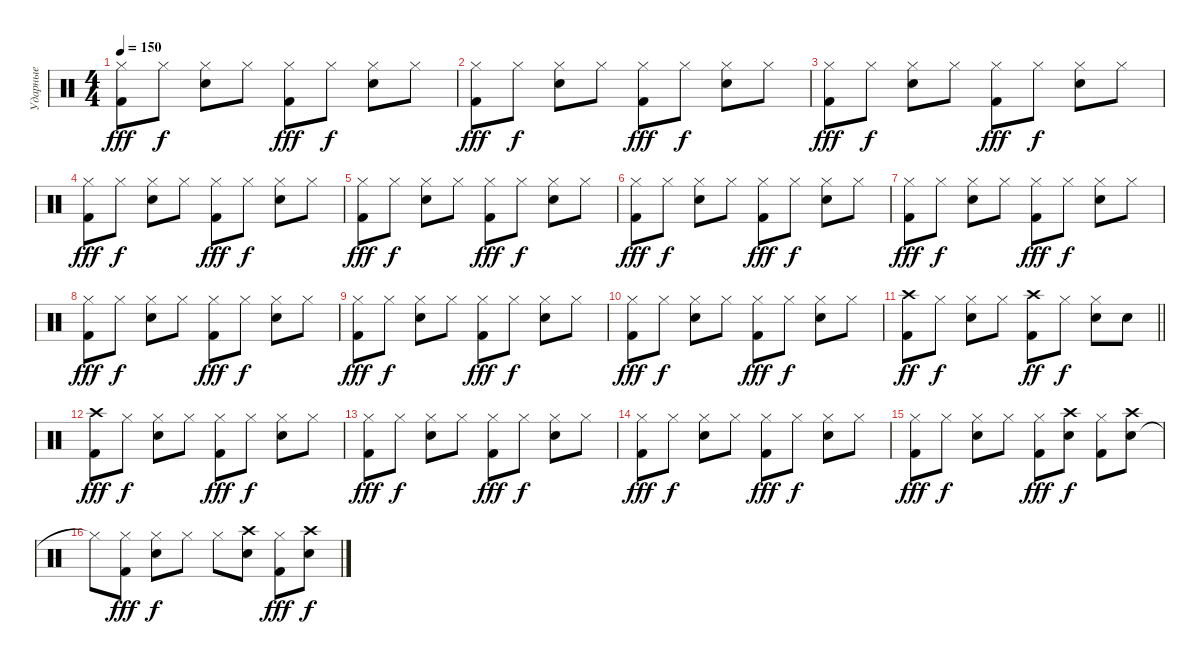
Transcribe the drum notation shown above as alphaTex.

\track ("Ударные" "Ударные") {instrument percussion}
\staff
\articulation defaults
\ts (4 4)
\tempo 150
\clef neutral
\ks c
("Kick (hit) 2" "Hi-Hat (closed)").8{dy fff} "Hi-Hat (closed)".8{dy f} ("Snare (hit) 2" "Hi-Hat (closed)").8 "Hi-Hat (closed)".8 ("Kick (hit) 2" "Hi-Hat (closed)").8{dy fff} "Hi-Hat (closed)".8{dy f} ("Snare (hit) 2" "Hi-Hat (closed)").8 "Hi-Hat (closed)".8 |
("Kick (hit) 2" "Hi-Hat (closed)").8{dy fff} "Hi-Hat (closed)".8{dy f} ("Snare (hit) 2" "Hi-Hat (closed)").8 "Hi-Hat (closed)".8 ("Kick (hit) 2" "Hi-Hat (closed)").8{dy fff} "Hi-Hat (closed)".8{dy f} ("Snare (hit) 2" "Hi-Hat (closed)").8 "Hi-Hat (closed)".8 |
("Kick (hit) 2" "Hi-Hat (closed)").8{dy fff} "Hi-Hat (closed)".8{dy f} ("Snare (hit) 2" "Hi-Hat (closed)").8 "Hi-Hat (closed)".8 ("Kick (hit) 2" "Hi-Hat (closed)").8{dy fff} "Hi-Hat (closed)".8{dy f} ("Snare (hit) 2" "Hi-Hat (closed)").8 "Hi-Hat (closed)".8 |
("Kick (hit) 2" "Hi-Hat (closed)").8{dy fff} "Hi-Hat (closed)".8{dy f} ("Snare (hit) 2" "Hi-Hat (closed)").8 "Hi-Hat (closed)".8 ("Kick (hit) 2" "Hi-Hat (closed)").8{dy fff} "Hi-Hat (closed)".8{dy f} ("Snare (hit) 2" "Hi-Hat (closed)").8 "Hi-Hat (closed)".8 |
("Kick (hit) 2" "Hi-Hat (closed)").8{dy fff} "Hi-Hat (closed)".8{dy f} ("Snare (hit) 2" "Hi-Hat (closed)").8 "Hi-Hat (closed)".8 ("Kick (hit) 2" "Hi-Hat (closed)").8{dy fff} "Hi-Hat (closed)".8{dy f} ("Snare (hit) 2" "Hi-Hat (closed)").8 "Hi-Hat (closed)".8 |
("Kick (hit) 2" "Hi-Hat (closed)").8{dy fff} "Hi-Hat (closed)".8{dy f} ("Snare (hit) 2" "Hi-Hat (closed)").8 "Hi-Hat (closed)".8 ("Kick (hit) 2" "Hi-Hat (closed)").8{dy fff} "Hi-Hat (closed)".8{dy f} ("Snare (hit) 2" "Hi-Hat (closed)").8 "Hi-Hat (closed)".8 |
("Kick (hit) 2" "Hi-Hat (closed)").8{dy fff} "Hi-Hat (closed)".8{dy f} ("Snare (hit) 2" "Hi-Hat (closed)").8 "Hi-Hat (closed)".8 ("Kick (hit) 2" "Hi-Hat (closed)").8{dy fff} "Hi-Hat (closed)".8{dy f} ("Snare (hit) 2" "Hi-Hat (closed)").8 "Hi-Hat (closed)".8 |
("Kick (hit) 2" "Hi-Hat (closed)").8{dy fff} "Hi-Hat (closed)".8{dy f} ("Snare (hit) 2" "Hi-Hat (closed)").8 "Hi-Hat (closed)".8 ("Kick (hit) 2" "Hi-Hat (closed)").8{dy fff} "Hi-Hat (closed)".8{dy f} ("Snare (hit) 2" "Hi-Hat (closed)").8 "Hi-Hat (closed)".8 |
("Kick (hit) 2" "Hi-Hat (closed)").8{dy fff} "Hi-Hat (closed)".8{dy f} ("Snare (hit) 2" "Hi-Hat (closed)").8 "Hi-Hat (closed)".8 ("Kick (hit) 2" "Hi-Hat (closed)").8{dy fff} "Hi-Hat (closed)".8{dy f} ("Snare (hit) 2" "Hi-Hat (closed)").8 "Hi-Hat (closed)".8 |
("Kick (hit) 2" "Hi-Hat (closed)").8{dy fff} "Hi-Hat (closed)".8{dy f} ("Snare (hit) 2" "Hi-Hat (closed)").8 "Hi-Hat (closed)".8 ("Kick (hit) 2" "Hi-Hat (closed)").8{dy fff} "Hi-Hat (closed)".8{dy f} ("Snare (hit) 2" "Hi-Hat (closed)").8 "Hi-Hat (closed)".8 |
\barLineRight lightlight
("Kick (hit) 2" "Crash high (hit)").8{dy ff} "Hi-Hat (closed)".8{dy f} ("Snare (hit) 2" "Hi-Hat (closed)").8 "Hi-Hat (closed)".8 ("Kick (hit) 2" "Crash high (hit)").8{dy ff} "Hi-Hat (closed)".8{dy f} ("Snare (hit) 2" "Hi-Hat (closed)").8 "Snare (hit) 2".8 |
("Kick (hit) 2" "Crash high (hit)").8{dy fff} "Hi-Hat (closed)".8{dy f} ("Snare (hit) 2" "Hi-Hat (closed)").8 "Hi-Hat (closed)".8 ("Kick (hit) 2" "Hi-Hat (closed)").8{dy fff} "Hi-Hat (closed)".8{dy f} ("Snare (hit) 2" "Hi-Hat (closed)").8 "Hi-Hat (closed)".8 |
("Kick (hit) 2" "Hi-Hat (closed)").8{dy fff} "Hi-Hat (closed)".8{dy f} ("Snare (hit) 2" "Hi-Hat (closed)").8 "Hi-Hat (closed)".8 ("Kick (hit) 2" "Hi-Hat (closed)").8{dy fff} "Hi-Hat (closed)".8{dy f} ("Snare (hit) 2" "Hi-Hat (closed)").8 "Hi-Hat (closed)".8 |
("Kick (hit) 2" "Hi-Hat (closed)").8{dy fff} "Hi-Hat (closed)".8{dy f} ("Snare (hit) 2" "Hi-Hat (closed)").8 "Hi-Hat (closed)".8 ("Kick (hit) 2" "Hi-Hat (closed)").8{dy fff} "Hi-Hat (closed)".8{dy f} ("Snare (hit) 2" "Hi-Hat (closed)").8 "Hi-Hat (closed)".8 |
("Kick (hit) 2" "Hi-Hat (closed)").8{dy fff} "Hi-Hat (closed)".8{dy f} ("Snare (hit) 2" "Hi-Hat (closed)").8 "Hi-Hat (closed)".8 ("Kick (hit) 2" "Hi-Hat (closed)").8{dy fff} ("Snare (hit) 2" "Crash high (hit)").8{dy f} ("Kick (hit) 2" "Hi-Hat (closed)").8 ("Snare (hit) 2" "Crash high (hit)").8 |
"Hi-Hat (closed)"{t}.8 ("Kick (hit) 2" "Hi-Hat (closed)").8{dy fff} ("Snare (hit) 2" "Hi-Hat (closed)").8{dy f} "Hi-Hat (closed)".8 "Hi-Hat (closed)".8 ("Snare (hit) 2" "Crash high (hit)").8 ("Kick (hit) 2" "Hi-Hat (closed)").8{dy fff} ("Snare (hit) 2" "Crash high (hit)").8{dy f}
